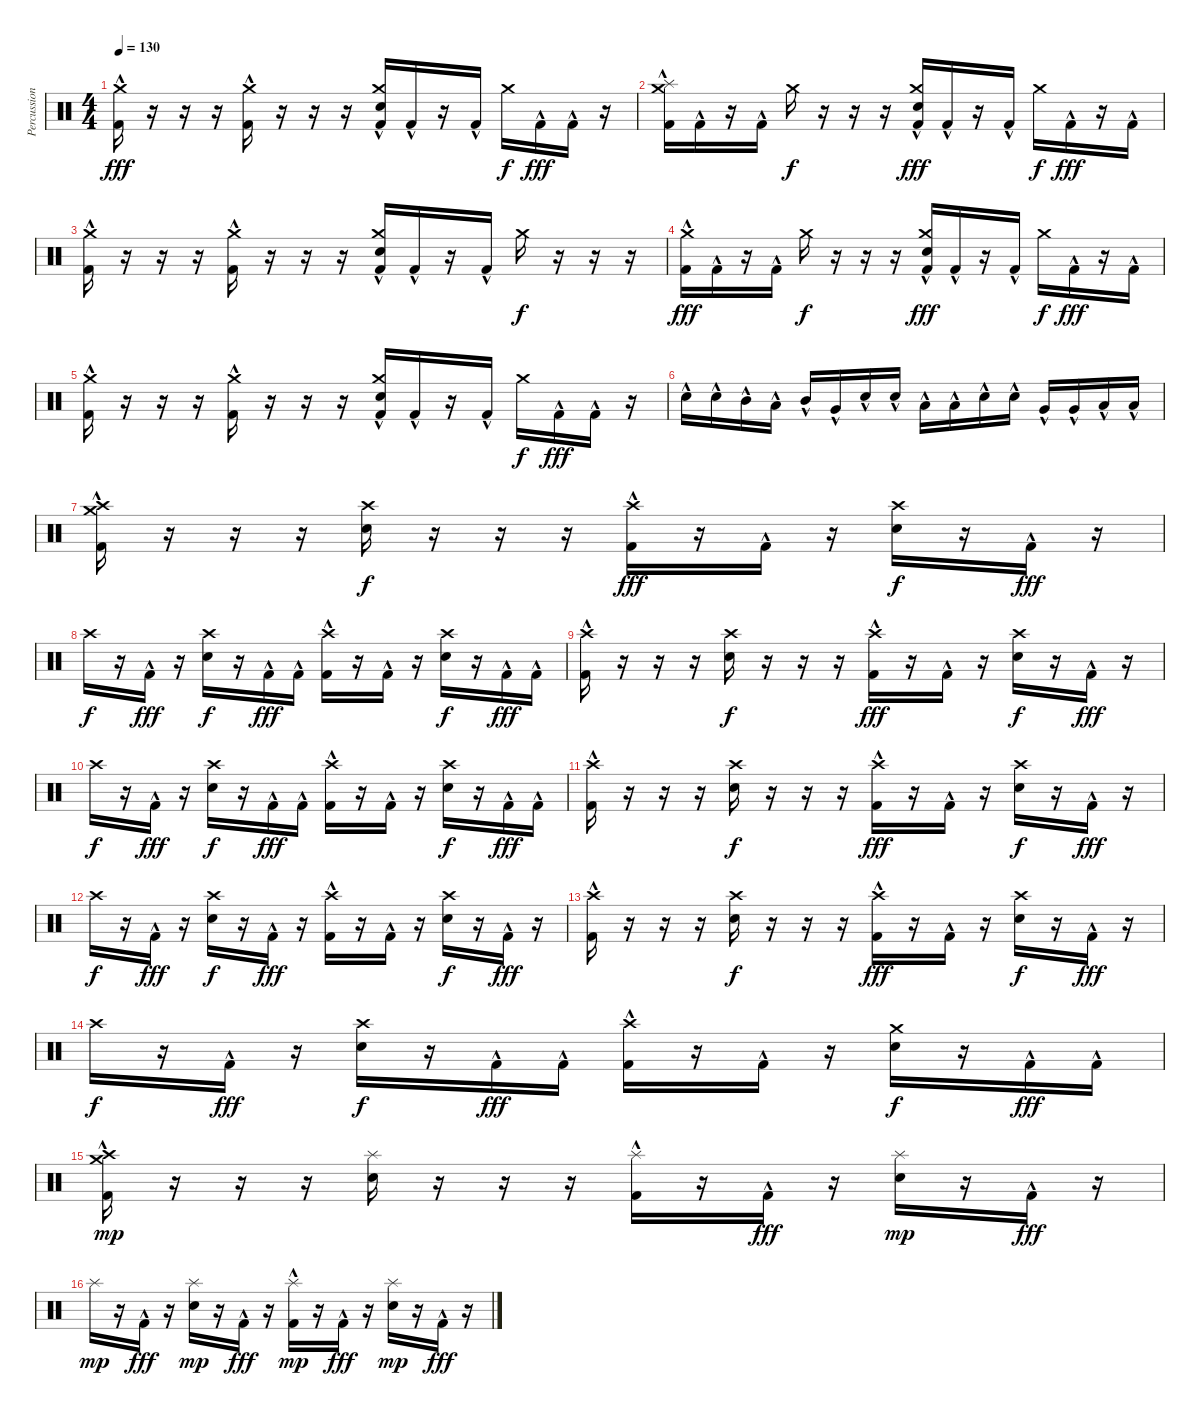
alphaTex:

\track ("Percussion" "Percussion") {instrument percussion}
\staff {score}
\articulation defaults
\ts (4 4)
\tempo 130
\clef neutral
\ks c
("Kick (hit) 2"{hac} "Crash medium (hit)").16{dy fff} r.16 r.16 r.16 ("Kick (hit) 2"{hac} "Crash medium (hit)").16 r.16 r.16 r.16 ("Kick (hit) 2"{hac} "Electric Snare (hit)" "Crash medium (hit)").16 "Kick (hit) 2"{hac}.16 r.16 "Kick (hit) 2"{hac}.16 "Crash medium (hit)".16{dy f} "Kick (hit) 2"{hac}.16{dy fff} "Kick (hit) 2"{hac}.16 r.16 |
("Kick (hit) 2"{hac} "Splash (hit)" "Crash medium (hit)").16 "Kick (hit) 2"{hac}.16 r.16 "Kick (hit) 2"{hac}.16 "Crash medium (hit)".16{dy f} r.16 r.16 r.16 ("Kick (hit) 2"{hac} "Electric Snare (hit)" "Crash medium (hit)").16{dy fff} "Kick (hit) 2"{hac}.16 r.16 "Kick (hit) 2"{hac}.16 "Crash medium (hit)".16{dy f} "Kick (hit) 2"{hac}.16{dy fff} r.16 "Kick (hit) 2"{hac}.16 |
("Kick (hit) 2"{hac} "Crash medium (hit)").16 r.16 r.16 r.16 ("Kick (hit) 2"{hac} "Crash medium (hit)").16 r.16 r.16 r.16 ("Kick (hit) 2"{hac} "Electric Snare (hit)" "Crash medium (hit)").16 "Kick (hit) 2"{hac}.16 r.16 "Kick (hit) 2"{hac}.16 "Crash medium (hit)".16{dy f} r.16 r.16 r.16 |
("Kick (hit) 2"{hac} "Crash medium (hit)").16{dy fff} "Kick (hit) 2"{hac}.16 r.16 "Kick (hit) 2"{hac}.16 "Crash medium (hit)".16{dy f} r.16 r.16 r.16 ("Kick (hit) 2"{hac} "Electric Snare (hit)" "Crash medium (hit)").16{dy fff} "Kick (hit) 2"{hac}.16 r.16 "Kick (hit) 2"{hac}.16 "Crash medium (hit)".16{dy f} "Kick (hit) 2"{hac}.16{dy fff} r.16 "Kick (hit) 2"{hac}.16 |
("Kick (hit) 2"{hac} "Crash medium (hit)").16 r.16 r.16 r.16 ("Kick (hit) 2"{hac} "Crash medium (hit)").16 r.16 r.16 r.16 ("Kick (hit) 2"{hac} "Electric Snare (hit)" "Crash medium (hit)").16 "Kick (hit) 2"{hac}.16 r.16 "Kick (hit) 2"{hac}.16 "Crash medium (hit)".16{dy f} "Kick (hit) 2"{hac}.16{dy fff} "Kick (hit) 2"{hac}.16 r.16 |
"Electric Snare (hit)"{hac}.16 "Electric Snare (hit)"{hac}.16 "Mid Tom (hit)"{hac}.16 "Low Tom (hit)"{hac}.16 "Mid Tom (hit)"{hac}.16 "Very Low Tom (hit)"{hac}.16 "Electric Snare (hit)"{hac}.16 "Electric Snare (hit)"{hac}.16 "Low Tom (hit)"{hac}.16 "Low Tom (hit)"{hac}.16 "Electric Snare (hit)"{hac}.16 "Electric Snare (hit)"{hac}.16 "Very Low Tom (hit)"{hac}.16 "Very Low Tom (hit)"{hac}.16 "Low Floor Tom (hit)"{hac}.16 "Low Floor Tom (hit)"{hac}.16 |
("Kick (hit) 2"{hac} "Crash medium (hit)" "Crash high (hit)").16 r.16 r.16 r.16 ("Electric Snare (hit)" "Crash high (hit)").16{dy f} r.16 r.16 r.16 ("Kick (hit) 2"{hac} "Crash high (hit)").16{dy fff} r.16 "Kick (hit) 2"{hac}.16 r.16 ("Electric Snare (hit)" "Crash high (hit)").16{dy f} r.16 "Kick (hit) 2"{hac}.16{dy fff} r.16 |
"Crash high (hit)".16{dy f} r.16 "Kick (hit) 2"{hac}.16{dy fff} r.16 ("Electric Snare (hit)" "Crash high (hit)").16{dy f} r.16 "Kick (hit) 2"{hac}.16{dy fff} "Kick (hit) 2"{hac}.16 ("Kick (hit) 2"{hac} "Crash high (hit)").16 r.16 "Kick (hit) 2"{hac}.16 r.16 ("Electric Snare (hit)" "Crash high (hit)").16{dy f} r.16 "Kick (hit) 2"{hac}.16{dy fff} "Kick (hit) 2"{hac}.16 |
("Kick (hit) 2"{hac} "Crash high (hit)").16 r.16 r.16 r.16 ("Electric Snare (hit)" "Crash high (hit)").16{dy f} r.16 r.16 r.16 ("Kick (hit) 2"{hac} "Crash high (hit)").16{dy fff} r.16 "Kick (hit) 2"{hac}.16 r.16 ("Electric Snare (hit)" "Crash high (hit)").16{dy f} r.16 "Kick (hit) 2"{hac}.16{dy fff} r.16 |
"Crash high (hit)".16{dy f} r.16 "Kick (hit) 2"{hac}.16{dy fff} r.16 ("Electric Snare (hit)" "Crash high (hit)").16{dy f} r.16 "Kick (hit) 2"{hac}.16{dy fff} "Kick (hit) 2"{hac}.16 ("Kick (hit) 2"{hac} "Crash high (hit)").16 r.16 "Kick (hit) 2"{hac}.16 r.16 ("Electric Snare (hit)" "Crash high (hit)").16{dy f} r.16 "Kick (hit) 2"{hac}.16{dy fff} "Kick (hit) 2"{hac}.16 |
("Kick (hit) 2"{hac} "Crash high (hit)").16 r.16 r.16 r.16 ("Electric Snare (hit)" "Crash high (hit)").16{dy f} r.16 r.16 r.16 ("Kick (hit) 2"{hac} "Crash high (hit)").16{dy fff} r.16 "Kick (hit) 2"{hac}.16 r.16 ("Electric Snare (hit)" "Crash high (hit)").16{dy f} r.16 "Kick (hit) 2"{hac}.16{dy fff} r.16 |
"Crash high (hit)".16{dy f} r.16 "Kick (hit) 2"{hac}.16{dy fff} r.16 ("Electric Snare (hit)" "Crash high (hit)").16{dy f} r.16 "Kick (hit) 2"{hac}.16{dy fff} r.16 ("Kick (hit) 2"{hac} "Crash high (hit)").16 r.16 "Kick (hit) 2"{hac}.16 r.16 ("Electric Snare (hit)" "Crash high (hit)").16{dy f} r.16 "Kick (hit) 2"{hac}.16{dy fff} r.16 |
("Kick (hit) 2"{hac} "Crash high (hit)").16 r.16 r.16 r.16 ("Electric Snare (hit)" "Crash high (hit)").16{dy f} r.16 r.16 r.16 ("Kick (hit) 2"{hac} "Crash high (hit)").16{dy fff} r.16 "Kick (hit) 2"{hac}.16 r.16 ("Electric Snare (hit)" "Crash high (hit)").16{dy f} r.16 "Kick (hit) 2"{hac}.16{dy fff} r.16 |
"Crash high (hit)".16{dy f} r.16 "Kick (hit) 2"{hac}.16{dy fff} r.16 ("Electric Snare (hit)" "Crash high (hit)").16{dy f} r.16 "Kick (hit) 2"{hac}.16{dy fff} "Kick (hit) 2"{hac}.16 ("Kick (hit) 2"{hac} "Crash high (hit)").16 r.16 "Kick (hit) 2"{hac}.16 r.16 ("Electric Snare (hit)" "Crash medium (hit)").16{dy f} r.16 "Kick (hit) 2"{hac}.16{dy fff} "Kick (hit) 2"{hac}.16 |
("Kick (hit) 2"{hac} "Crash medium (hit)" "Crash high (hit)").16{dy mp} r.16 r.16 r.16 ("Electric Snare (hit)" "Splash (hit)").16 r.16 r.16 r.16 ("Kick (hit) 2"{hac} "Splash (hit)").16 r.16 "Kick (hit) 2"{hac}.16{dy fff} r.16 ("Electric Snare (hit)" "Splash (hit)").16{dy mp} r.16 "Kick (hit) 2"{hac}.16{dy fff} r.16 |
"Splash (hit)".16{dy mp} r.16 "Kick (hit) 2"{hac}.16{dy fff} r.16 ("Electric Snare (hit)" "Splash (hit)").16{dy mp} r.16 "Kick (hit) 2"{hac}.16{dy fff} r.16 ("Kick (hit) 2"{hac} "Splash (hit)").16{dy mp} r.16 "Kick (hit) 2"{hac}.16{dy fff} r.16 ("Electric Snare (hit)" "Splash (hit)").16{dy mp} r.16 "Kick (hit) 2"{hac}.16{dy fff} r.16
